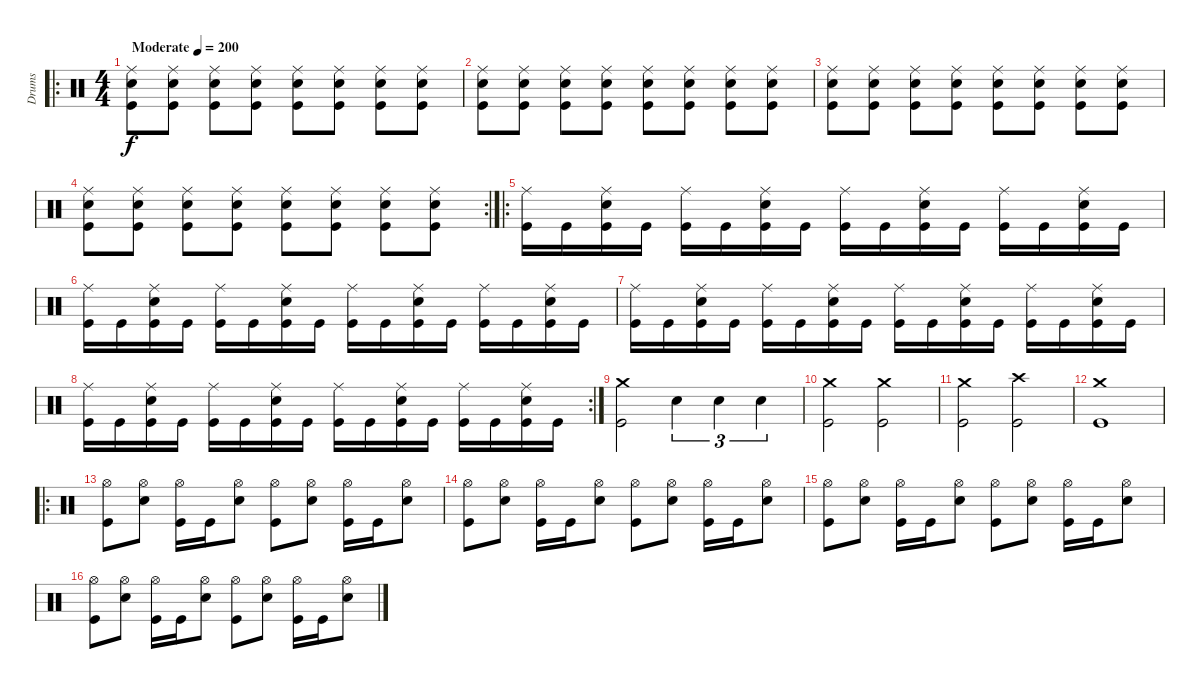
\track ("Drums" "Drums") {instrument percussion}
\staff {score}
\articulation defaults
\ro
\ts (4 4)
\tempo (200 "Moderate")
\clef neutral
\ks c
("Ride (middle)" "Snare (hit) 2" "Kick (hit)").8{dy f} ("Ride (middle)" "Snare (hit) 2" "Kick (hit)").8 ("Ride (middle)" "Snare (hit) 2" "Kick (hit)").8 ("Ride (middle)" "Snare (hit) 2" "Kick (hit)").8 ("Ride (middle)" "Snare (hit) 2" "Kick (hit)").8 ("Ride (middle)" "Snare (hit) 2" "Kick (hit)").8 ("Ride (middle)" "Snare (hit) 2" "Kick (hit)").8 ("Ride (middle)" "Snare (hit) 2" "Kick (hit)").8 |
("Ride (middle)" "Snare (hit) 2" "Kick (hit)").8 ("Ride (middle)" "Snare (hit) 2" "Kick (hit)").8 ("Ride (middle)" "Snare (hit) 2" "Kick (hit)").8 ("Ride (middle)" "Snare (hit) 2" "Kick (hit)").8 ("Ride (middle)" "Snare (hit) 2" "Kick (hit)").8 ("Ride (middle)" "Snare (hit) 2" "Kick (hit)").8 ("Ride (middle)" "Snare (hit) 2" "Kick (hit)").8 ("Ride (middle)" "Snare (hit) 2" "Kick (hit)").8 |
("Ride (middle)" "Snare (hit) 2" "Kick (hit)").8 ("Ride (middle)" "Snare (hit) 2" "Kick (hit)").8 ("Ride (middle)" "Snare (hit) 2" "Kick (hit)").8 ("Ride (middle)" "Snare (hit) 2" "Kick (hit)").8 ("Ride (middle)" "Snare (hit) 2" "Kick (hit)").8 ("Ride (middle)" "Snare (hit) 2" "Kick (hit)").8 ("Ride (middle)" "Snare (hit) 2" "Kick (hit)").8 ("Ride (middle)" "Snare (hit) 2" "Kick (hit)").8 |
\rc 2
("Ride (middle)" "Snare (hit) 2" "Kick (hit)").8 ("Ride (middle)" "Snare (hit) 2" "Kick (hit)").8 ("Ride (middle)" "Snare (hit) 2" "Kick (hit)").8 ("Ride (middle)" "Snare (hit) 2" "Kick (hit)").8 ("Ride (middle)" "Snare (hit) 2" "Kick (hit)").8 ("Ride (middle)" "Snare (hit) 2" "Kick (hit)").8 ("Ride (middle)" "Snare (hit) 2" "Kick (hit)").8 ("Ride (middle)" "Snare (hit) 2" "Kick (hit)").8 |
\ro
("Ride (middle)" "Kick (hit)").16 "Kick (hit)".16 ("Ride (middle)" "Snare (hit) 2" "Kick (hit)").16 "Kick (hit)".16 ("Ride (middle)" "Kick (hit)").16 "Kick (hit)".16 ("Ride (middle)" "Snare (hit) 2" "Kick (hit)").16 "Kick (hit)".16 ("Ride (middle)" "Kick (hit)").16 "Kick (hit)".16 ("Ride (middle)" "Snare (hit) 2" "Kick (hit)").16 "Kick (hit)".16 ("Ride (middle)" "Kick (hit)").16 "Kick (hit)".16 ("Ride (middle)" "Snare (hit) 2" "Kick (hit)").16 "Kick (hit)".16 |
("Ride (middle)" "Kick (hit)").16 "Kick (hit)".16 ("Ride (middle)" "Snare (hit) 2" "Kick (hit)").16 "Kick (hit)".16 ("Ride (middle)" "Kick (hit)").16 "Kick (hit)".16 ("Ride (middle)" "Snare (hit) 2" "Kick (hit)").16 "Kick (hit)".16 ("Ride (middle)" "Kick (hit)").16 "Kick (hit)".16 ("Ride (middle)" "Snare (hit) 2" "Kick (hit)").16 "Kick (hit)".16 ("Ride (middle)" "Kick (hit)").16 "Kick (hit)".16 ("Ride (middle)" "Snare (hit) 2" "Kick (hit)").16 "Kick (hit)".16 |
("Ride (middle)" "Kick (hit)").16 "Kick (hit)".16 ("Ride (middle)" "Snare (hit) 2" "Kick (hit)").16 "Kick (hit)".16 ("Ride (middle)" "Kick (hit)").16 "Kick (hit)".16 ("Ride (middle)" "Snare (hit) 2" "Kick (hit)").16 "Kick (hit)".16 ("Ride (middle)" "Kick (hit)").16 "Kick (hit)".16 ("Ride (middle)" "Snare (hit) 2" "Kick (hit)").16 "Kick (hit)".16 ("Ride (middle)" "Kick (hit)").16 "Kick (hit)".16 ("Ride (middle)" "Snare (hit) 2" "Kick (hit)").16 "Kick (hit)".16 |
\rc 2
("Ride (middle)" "Kick (hit)").16 "Kick (hit)".16 ("Ride (middle)" "Snare (hit) 2" "Kick (hit)").16 "Kick (hit)".16 ("Ride (middle)" "Kick (hit)").16 "Kick (hit)".16 ("Ride (middle)" "Snare (hit) 2" "Kick (hit)").16 "Kick (hit)".16 ("Ride (middle)" "Kick (hit)").16 "Kick (hit)".16 ("Ride (middle)" "Snare (hit) 2" "Kick (hit)").16 "Kick (hit)".16 ("Ride (middle)" "Kick (hit)").16 "Kick (hit)".16 ("Ride (middle)" "Snare (hit) 2" "Kick (hit)").16 "Kick (hit)".16 |
("Crash medium (hit)" "Kick (hit)").2 "Snare (hit) 2".4{tu (3 2)} "Snare (hit) 2".4{tu (3 2)} "Snare (hit) 2".4{tu (3 2)} |
("Crash medium (hit)" "Kick (hit)").2 ("Crash medium (hit)" "Kick (hit)").2 |
("Crash medium (hit)" "Kick (hit)").2 ("Crash high (hit)" "Kick (hit)").2 |
("Crash medium (hit)" "Kick (hit)").1 |
\ro
("Hi-Hat (open)" "Kick (hit)").8 ("Hi-Hat (open)" "Snare (hit) 2").8 ("Hi-Hat (open)" "Kick (hit)").16 "Kick (hit)".16 ("Hi-Hat (open)" "Snare (hit) 2").8 ("Hi-Hat (open)" "Kick (hit)").8 ("Hi-Hat (open)" "Snare (hit) 2").8 ("Hi-Hat (open)" "Kick (hit)").16 "Kick (hit)".16 ("Hi-Hat (open)" "Snare (hit) 2").8 |
("Hi-Hat (open)" "Kick (hit)").8 ("Hi-Hat (open)" "Snare (hit) 2").8 ("Hi-Hat (open)" "Kick (hit)").16 "Kick (hit)".16 ("Hi-Hat (open)" "Snare (hit) 2").8 ("Hi-Hat (open)" "Kick (hit)").8 ("Hi-Hat (open)" "Snare (hit) 2").8 ("Hi-Hat (open)" "Kick (hit)").16 "Kick (hit)".16 ("Hi-Hat (open)" "Snare (hit) 2").8 |
("Hi-Hat (open)" "Kick (hit)").8 ("Hi-Hat (open)" "Snare (hit) 2").8 ("Hi-Hat (open)" "Kick (hit)").16 "Kick (hit)".16 ("Hi-Hat (open)" "Snare (hit) 2").8 ("Hi-Hat (open)" "Kick (hit)").8 ("Hi-Hat (open)" "Snare (hit) 2").8 ("Hi-Hat (open)" "Kick (hit)").16 "Kick (hit)".16 ("Hi-Hat (open)" "Snare (hit) 2").8 |
("Hi-Hat (open)" "Kick (hit)").8 ("Hi-Hat (open)" "Snare (hit) 2").8 ("Hi-Hat (open)" "Kick (hit)").16 "Kick (hit)".16 ("Hi-Hat (open)" "Snare (hit) 2").8 ("Hi-Hat (open)" "Kick (hit)").8 ("Hi-Hat (open)" "Snare (hit) 2").8 ("Hi-Hat (open)" "Kick (hit)").16 "Kick (hit)".16 ("Hi-Hat (open)" "Snare (hit) 2").8
